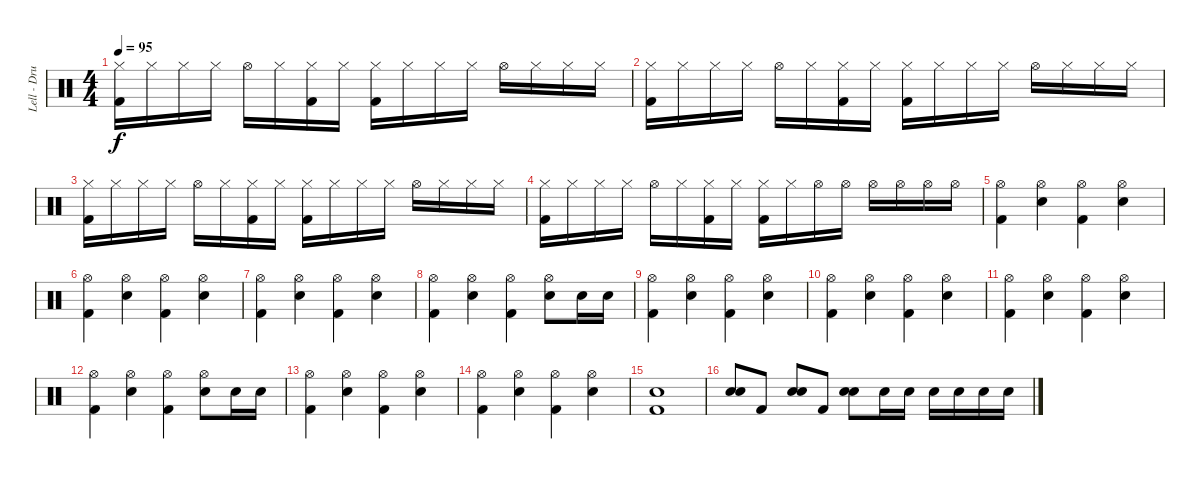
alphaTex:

\track ("Lell - Drums" "Lell - Dru") {instrument percussion}
\staff {score}
\articulation defaults
\ts (4 4)
\tempo 95
\clef neutral
\ks c
("Hi-Hat (closed)" "Kick (hit) 2").16{dy f} "Hi-Hat (closed)".16 "Hi-Hat (closed)".16 "Hi-Hat (closed)".16 "Hi-Hat (open)".16 "Hi-Hat (closed)".16 ("Hi-Hat (closed)" "Kick (hit) 2").16 "Hi-Hat (closed)".16 ("Hi-Hat (closed)" "Kick (hit) 2").16 "Hi-Hat (closed)".16 "Hi-Hat (closed)".16 "Hi-Hat (closed)".16 "Hi-Hat (open)".16 "Hi-Hat (closed)".16 "Hi-Hat (closed)".16 "Hi-Hat (closed)".16 |
("Hi-Hat (closed)" "Kick (hit) 2").16 "Hi-Hat (closed)".16 "Hi-Hat (closed)".16 "Hi-Hat (closed)".16 "Hi-Hat (open)".16 "Hi-Hat (closed)".16 ("Hi-Hat (closed)" "Kick (hit) 2").16 "Hi-Hat (closed)".16 ("Hi-Hat (closed)" "Kick (hit) 2").16 "Hi-Hat (closed)".16 "Hi-Hat (closed)".16 "Hi-Hat (closed)".16 "Hi-Hat (open)".16 "Hi-Hat (closed)".16 "Hi-Hat (closed)".16 "Hi-Hat (closed)".16 |
("Hi-Hat (closed)" "Kick (hit) 2").16 "Hi-Hat (closed)".16 "Hi-Hat (closed)".16 "Hi-Hat (closed)".16 "Hi-Hat (open)".16 "Hi-Hat (closed)".16 ("Hi-Hat (closed)" "Kick (hit) 2").16 "Hi-Hat (closed)".16 ("Hi-Hat (closed)" "Kick (hit) 2").16 "Hi-Hat (closed)".16 "Hi-Hat (closed)".16 "Hi-Hat (closed)".16 "Hi-Hat (open)".16 "Hi-Hat (closed)".16 "Hi-Hat (closed)".16 "Hi-Hat (closed)".16 |
("Hi-Hat (closed)" "Kick (hit) 2").16 "Hi-Hat (closed)".16 "Hi-Hat (closed)".16 "Hi-Hat (closed)".16 "Hi-Hat (open)".16 "Hi-Hat (closed)".16 ("Hi-Hat (closed)" "Kick (hit) 2").16 "Hi-Hat (closed)".16 ("Hi-Hat (closed)" "Kick (hit) 2").16 "Hi-Hat (closed)".16 "Hi-Hat (open)".16 "Hi-Hat (open)".16 "Hi-Hat (open)".16 "Hi-Hat (open)".16 "Hi-Hat (open)".16 "Hi-Hat (open)".16 |
("Hi-Hat (open)" "Kick (hit) 2").4 ("Hi-Hat (open)" "Snare (hit) 2").4 ("Hi-Hat (open)" "Kick (hit) 2").4 ("Hi-Hat (open)" "Snare (hit) 2").4 |
("Hi-Hat (open)" "Kick (hit) 2").4 ("Hi-Hat (open)" "Snare (hit) 2").4 ("Hi-Hat (open)" "Kick (hit) 2").4 ("Hi-Hat (open)" "Snare (hit) 2").4 |
("Hi-Hat (open)" "Kick (hit) 2").4 ("Hi-Hat (open)" "Snare (hit) 2").4 ("Hi-Hat (open)" "Kick (hit) 2").4 ("Hi-Hat (open)" "Snare (hit) 2").4 |
("Hi-Hat (open)" "Kick (hit) 2").4 ("Hi-Hat (open)" "Snare (hit) 2").4 ("Hi-Hat (open)" "Kick (hit) 2").4 ("Hi-Hat (open)" "Snare (hit) 2").8 "Snare (hit) 2".16 "Snare (hit) 2".16 |
("Hi-Hat (open)" "Kick (hit) 2").4 ("Hi-Hat (open)" "Snare (hit) 2").4 ("Hi-Hat (open)" "Kick (hit) 2").4 ("Hi-Hat (open)" "Snare (hit) 2").4 |
("Hi-Hat (open)" "Kick (hit) 2").4 ("Hi-Hat (open)" "Snare (hit) 2").4 ("Hi-Hat (open)" "Kick (hit) 2").4 ("Hi-Hat (open)" "Snare (hit) 2").4 |
("Hi-Hat (open)" "Kick (hit) 2").4 ("Hi-Hat (open)" "Snare (hit) 2").4 ("Hi-Hat (open)" "Kick (hit) 2").4 ("Hi-Hat (open)" "Snare (hit) 2").4 |
("Hi-Hat (open)" "Kick (hit) 2").4 ("Hi-Hat (open)" "Snare (hit) 2").4 ("Hi-Hat (open)" "Kick (hit) 2").4 ("Hi-Hat (open)" "Snare (hit) 2").8 "Snare (hit) 2".16 "Snare (hit) 2".16 |
("Hi-Hat (open)" "Kick (hit) 2").4 ("Hi-Hat (open)" "Snare (hit) 2").4 ("Hi-Hat (open)" "Kick (hit) 2").4 ("Hi-Hat (open)" "Snare (hit) 2").4 |
("Hi-Hat (open)" "Kick (hit) 2").4 ("Hi-Hat (open)" "Snare (hit) 2").4 ("Hi-Hat (open)" "Kick (hit) 2").4 ("Hi-Hat (open)" "Snare (hit) 2").4 |
("Snare (hit) 2" "Kick (hit) 2").1 |
("Snare (hit) 2" "Snare (hit) 2").8 "Kick (hit) 2".8 ("Snare (hit) 2" "Snare (hit) 2").8 "Kick (hit) 2".8 ("Snare (hit) 2" "Snare (hit) 2").8 "Snare (hit) 2".16 "Snare (hit) 2".16 "Snare (hit) 2".16 "Snare (hit) 2".16 "Snare (hit) 2".16 "Snare (hit) 2".16
